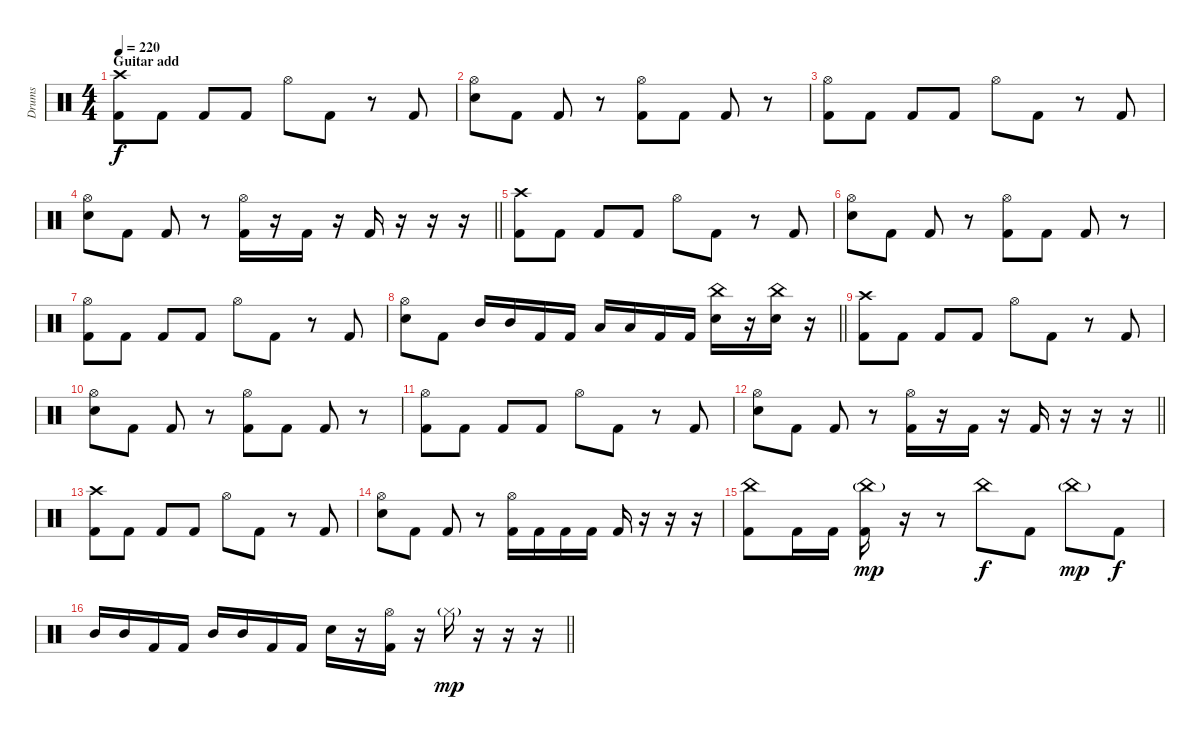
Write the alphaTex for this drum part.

\track ("Drums" "Drums") {instrument percussion}
\staff {score}
\articulation defaults
\ts (4 4)
\section ("" "Guitar add")
\tempo 220
\clef neutral
\ks c
("Crash high (hit)" "Kick (hit) 2").8{dy f} "Kick (hit) 2".8 "Kick (hit) 2".8 "Kick (hit) 2".8 "Hi-Hat (open)".8 "Kick (hit) 2".8 r.8 "Kick (hit) 2".8 |
("Electric Snare (hit)" "Hi-Hat (open)").8 "Kick (hit) 2".8 "Kick (hit) 2".8 r.8 ("Kick (hit) 2" "Hi-Hat (open)").8 "Kick (hit) 2".8 "Kick (hit) 2".8 r.8 |
("Kick (hit) 2" "Hi-Hat (open)").8 "Kick (hit) 2".8 "Kick (hit) 2".8 "Kick (hit) 2".8 "Hi-Hat (open)".8 "Kick (hit) 2".8 r.8 "Kick (hit) 2".8 |
\barLineRight lightlight
("Electric Snare (hit)" "Hi-Hat (open)").8 "Kick (hit) 2".8 "Kick (hit) 2".8 r.8 ("Kick (hit) 2" "Hi-Hat (open)").16 r.16 "Kick (hit) 2".16 r.16 "Kick (hit) 2".16 r.16 r.16 r.16 |
("Crash high (hit)" "Kick (hit) 2").8 "Kick (hit) 2".8 "Kick (hit) 2".8 "Kick (hit) 2".8 "Hi-Hat (open)".8 "Kick (hit) 2".8 r.8 "Kick (hit) 2".8 |
("Electric Snare (hit)" "Hi-Hat (open)").8 "Kick (hit) 2".8 "Kick (hit) 2".8 r.8 ("Kick (hit) 2" "Hi-Hat (open)").8 "Kick (hit) 2".8 "Kick (hit) 2".8 r.8 |
("Kick (hit) 2" "Hi-Hat (open)").8 "Kick (hit) 2".8 "Kick (hit) 2".8 "Kick (hit) 2".8 "Hi-Hat (open)".8 "Kick (hit) 2".8 r.8 "Kick (hit) 2".8 |
\barLineRight lightlight
("Electric Snare (hit)" "Hi-Hat (open)").8 "Kick (hit) 2".8 "Mid Tom (hit)".16 "Mid Tom (hit)".16 "Kick (hit) 2".16 "Kick (hit) 2".16 "Low Tom (hit)".16 "Low Tom (hit)".16 "Kick (hit) 2".16 "Kick (hit) 2".16 ("Electric Snare (hit)" "China (hit)").16 r.16 ("Electric Snare (hit)" "China (hit)").16 r.16 |
("Crash high (hit)" "Kick (hit) 2").8 "Kick (hit) 2".8 "Kick (hit) 2".8 "Kick (hit) 2".8 "Hi-Hat (open)".8 "Kick (hit) 2".8 r.8 "Kick (hit) 2".8 |
("Electric Snare (hit)" "Hi-Hat (open)").8 "Kick (hit) 2".8 "Kick (hit) 2".8 r.8 ("Kick (hit) 2" "Hi-Hat (open)").8 "Kick (hit) 2".8 "Kick (hit) 2".8 r.8 |
("Kick (hit) 2" "Hi-Hat (open)").8 "Kick (hit) 2".8 "Kick (hit) 2".8 "Kick (hit) 2".8 "Hi-Hat (open)".8 "Kick (hit) 2".8 r.8 "Kick (hit) 2".8 |
\barLineRight lightlight
("Electric Snare (hit)" "Hi-Hat (open)").8 "Kick (hit) 2".8 "Kick (hit) 2".8 r.8 ("Kick (hit) 2" "Hi-Hat (open)").16 r.16 "Kick (hit) 2".16 r.16 "Kick (hit) 2".16 r.16 r.16 r.16 |
("Crash high (hit)" "Kick (hit) 2").8 "Kick (hit) 2".8 "Kick (hit) 2".8 "Kick (hit) 2".8 "Hi-Hat (open)".8 "Kick (hit) 2".8 r.8 "Kick (hit) 2".8 |
("Electric Snare (hit)" "Hi-Hat (open)").8 "Kick (hit) 2".8 "Kick (hit) 2".8 r.8 ("Kick (hit) 2" "Hi-Hat (open)").16 "Kick (hit) 2".16 "Kick (hit) 2".16 "Kick (hit) 2".16 "Kick (hit) 2".16 r.16 r.16 r.16 |
("Kick (hit) 2" "China (hit)").8 "Kick (hit) 2".16 "Kick (hit) 2".16 ("Kick (hit) 2" "China (hit)"{g}).16{dy mp} r.16 r.8 "China (hit)".8{dy f} "Kick (hit) 2".8 "China (hit)"{g}.8{dy mp} "Kick (hit) 2".8{dy f} |
\barLineRight lightlight "Mid Tom (hit)".16 "Mid Tom (hit)".16 "Kick (hit) 2".16 "Kick (hit) 2".16 "Mid Tom (hit)".16 "Mid Tom (hit)".16 "Kick (hit) 2".16 "Kick (hit) 2".16 "Electric Snare (hit)".16
r.16 ("Kick (hit) 2" "Hi-Hat (open)").16 r.16 "Hi-Hat (closed)"{g}.16{dy mp} r.16 r.16 r.16
